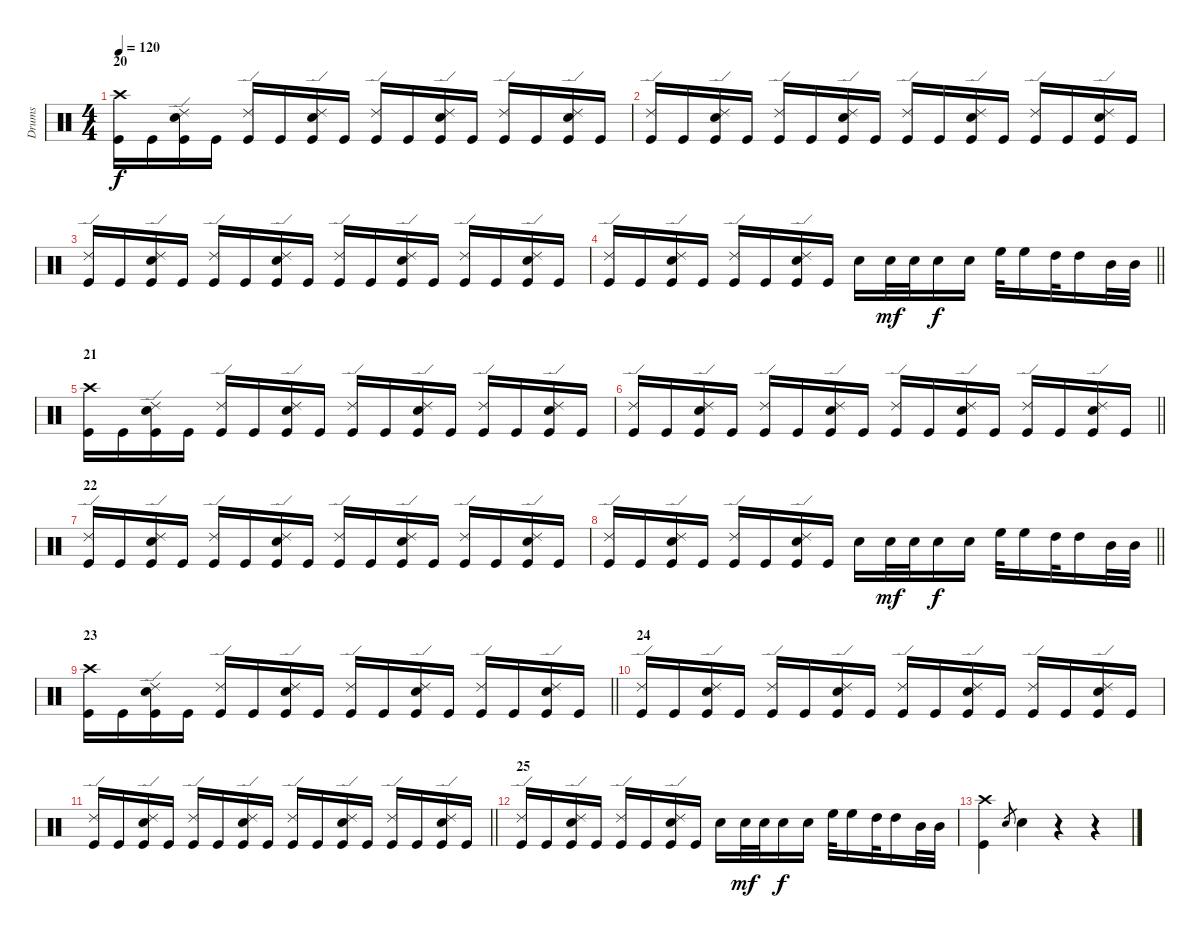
\track ("Drums" "Drums") {instrument percussion}
\staff {score}
\articulation defaults
\ts (4 4)
\section ("" "20")
\tempo 120
\clef neutral
\ks c
("Crash high (hit)" "Kick (hit)").16{dy f} "Kick (hit)".16 ("Ride (edge) 2" "Electric Snare (hit)" "Kick (hit)").16 "Kick (hit)".16 ("Ride (edge) 2" "Kick (hit)").16 "Kick (hit)".16 ("Ride (edge) 2" "Electric Snare (hit)" "Kick (hit)").16 "Kick (hit)".16 ("Ride (edge) 2" "Kick (hit)").16 "Kick (hit)".16 ("Ride (edge) 2" "Electric Snare (hit)" "Kick (hit)").16 "Kick (hit)".16 ("Ride (edge) 2" "Kick (hit)").16 "Kick (hit)".16 ("Ride (edge) 2" "Electric Snare (hit)" "Kick (hit)").16 "Kick (hit)".16 |
("Ride (edge) 2" "Kick (hit)").16 "Kick (hit)".16 ("Ride (edge) 2" "Electric Snare (hit)" "Kick (hit)").16 "Kick (hit)".16 ("Ride (edge) 2" "Kick (hit)").16 "Kick (hit)".16 ("Ride (edge) 2" "Electric Snare (hit)" "Kick (hit)").16 "Kick (hit)".16 ("Ride (edge) 2" "Kick (hit)").16 "Kick (hit)".16 ("Ride (edge) 2" "Electric Snare (hit)" "Kick (hit)").16 "Kick (hit)".16 ("Ride (edge) 2" "Kick (hit)").16 "Kick (hit)".16 ("Ride (edge) 2" "Electric Snare (hit)" "Kick (hit)").16 "Kick (hit)".16 |
("Ride (edge) 2" "Kick (hit)").16 "Kick (hit)".16 ("Ride (edge) 2" "Electric Snare (hit)" "Kick (hit)").16 "Kick (hit)".16 ("Ride (edge) 2" "Kick (hit)").16 "Kick (hit)".16 ("Ride (edge) 2" "Electric Snare (hit)" "Kick (hit)").16 "Kick (hit)".16 ("Ride (edge) 2" "Kick (hit)").16 "Kick (hit)".16 ("Ride (edge) 2" "Electric Snare (hit)" "Kick (hit)").16 "Kick (hit)".16 ("Ride (edge) 2" "Kick (hit)").16 "Kick (hit)".16 ("Ride (edge) 2" "Electric Snare (hit)" "Kick (hit)").16 "Kick (hit)".16 |
\barLineRight lightlight
("Ride (edge) 2" "Kick (hit)").16 "Kick (hit)".16 ("Ride (edge) 2" "Electric Snare (hit)" "Kick (hit)").16 "Kick (hit)".16 ("Ride (edge) 2" "Kick (hit)").16 "Kick (hit)".16 ("Ride (edge) 2" "Electric Snare (hit)" "Kick (hit)").16 "Kick (hit)".16 "Electric Snare (hit)".16 "Electric Snare (hit)".32{dy mf} "Electric Snare (hit)".32 "Electric Snare (hit)".16{dy f} "Electric Snare (hit)".16 "High Floor Tom (hit)".32 "High Floor Tom (hit)".16 "High Tom (hit)".32 "High Tom (hit)".16 "Mid Tom (hit)".32 "Mid Tom (hit)".32 |
\section ("" "21")
("Crash high (hit)" "Kick (hit)").16 "Kick (hit)".16 ("Ride (edge) 2" "Electric Snare (hit)" "Kick (hit)").16 "Kick (hit)".16 ("Ride (edge) 2" "Kick (hit)").16 "Kick (hit)".16 ("Ride (edge) 2" "Electric Snare (hit)" "Kick (hit)").16 "Kick (hit)".16 ("Ride (edge) 2" "Kick (hit)").16 "Kick (hit)".16 ("Ride (edge) 2" "Electric Snare (hit)" "Kick (hit)").16 "Kick (hit)".16 ("Ride (edge) 2" "Kick (hit)").16 "Kick (hit)".16 ("Ride (edge) 2" "Electric Snare (hit)" "Kick (hit)").16 "Kick (hit)".16 |
\barLineRight lightlight
("Ride (edge) 2" "Kick (hit)").16 "Kick (hit)".16 ("Ride (edge) 2" "Electric Snare (hit)" "Kick (hit)").16 "Kick (hit)".16 ("Ride (edge) 2" "Kick (hit)").16 "Kick (hit)".16 ("Ride (edge) 2" "Electric Snare (hit)" "Kick (hit)").16 "Kick (hit)".16 ("Ride (edge) 2" "Kick (hit)").16 "Kick (hit)".16 ("Ride (edge) 2" "Electric Snare (hit)" "Kick (hit)").16 "Kick (hit)".16 ("Ride (edge) 2" "Kick (hit)").16 "Kick (hit)".16 ("Ride (edge) 2" "Electric Snare (hit)" "Kick (hit)").16 "Kick (hit)".16 |
\section ("" "22")
("Ride (edge) 2" "Kick (hit)").16 "Kick (hit)".16 ("Ride (edge) 2" "Electric Snare (hit)" "Kick (hit)").16 "Kick (hit)".16 ("Ride (edge) 2" "Kick (hit)").16 "Kick (hit)".16 ("Ride (edge) 2" "Electric Snare (hit)" "Kick (hit)").16 "Kick (hit)".16 ("Ride (edge) 2" "Kick (hit)").16 "Kick (hit)".16 ("Ride (edge) 2" "Electric Snare (hit)" "Kick (hit)").16 "Kick (hit)".16 ("Ride (edge) 2" "Kick (hit)").16 "Kick (hit)".16 ("Ride (edge) 2" "Electric Snare (hit)" "Kick (hit)").16 "Kick (hit)".16 |
\barLineRight lightlight
("Ride (edge) 2" "Kick (hit)").16 "Kick (hit)".16 ("Ride (edge) 2" "Electric Snare (hit)" "Kick (hit)").16 "Kick (hit)".16 ("Ride (edge) 2" "Kick (hit)").16 "Kick (hit)".16 ("Ride (edge) 2" "Electric Snare (hit)" "Kick (hit)").16 "Kick (hit)".16 "Electric Snare (hit)".16 "Electric Snare (hit)".32{dy mf} "Electric Snare (hit)".32 "Electric Snare (hit)".16{dy f} "Electric Snare (hit)".16 "High Floor Tom (hit)".32 "High Floor Tom (hit)".16 "High Tom (hit)".32 "High Tom (hit)".16 "Mid Tom (hit)".32 "Mid Tom (hit)".32 |
\section ("" "23")
\barLineRight lightlight
("Crash high (hit)" "Kick (hit)").16 "Kick (hit)".16 ("Ride (edge) 2" "Electric Snare (hit)" "Kick (hit)").16 "Kick (hit)".16 ("Ride (edge) 2" "Kick (hit)").16 "Kick (hit)".16 ("Ride (edge) 2" "Electric Snare (hit)" "Kick (hit)").16 "Kick (hit)".16 ("Ride (edge) 2" "Kick (hit)").16 "Kick (hit)".16 ("Ride (edge) 2" "Electric Snare (hit)" "Kick (hit)").16 "Kick (hit)".16 ("Ride (edge) 2" "Kick (hit)").16 "Kick (hit)".16 ("Ride (edge) 2" "Electric Snare (hit)" "Kick (hit)").16 "Kick (hit)".16 |
\section ("" "24")
("Ride (edge) 2" "Kick (hit)").16 "Kick (hit)".16 ("Ride (edge) 2" "Electric Snare (hit)" "Kick (hit)").16 "Kick (hit)".16 ("Ride (edge) 2" "Kick (hit)").16 "Kick (hit)".16 ("Ride (edge) 2" "Electric Snare (hit)" "Kick (hit)").16 "Kick (hit)".16 ("Ride (edge) 2" "Kick (hit)").16 "Kick (hit)".16 ("Ride (edge) 2" "Electric Snare (hit)" "Kick (hit)").16 "Kick (hit)".16 ("Ride (edge) 2" "Kick (hit)").16 "Kick (hit)".16 ("Ride (edge) 2" "Electric Snare (hit)" "Kick (hit)").16 "Kick (hit)".16 |
\barLineRight lightlight
("Ride (edge) 2" "Kick (hit)").16 "Kick (hit)".16 ("Ride (edge) 2" "Electric Snare (hit)" "Kick (hit)").16 "Kick (hit)".16 ("Ride (edge) 2" "Kick (hit)").16 "Kick (hit)".16 ("Ride (edge) 2" "Electric Snare (hit)" "Kick (hit)").16 "Kick (hit)".16 ("Ride (edge) 2" "Kick (hit)").16 "Kick (hit)".16 ("Ride (edge) 2" "Electric Snare (hit)" "Kick (hit)").16 "Kick (hit)".16 ("Ride (edge) 2" "Kick (hit)").16 "Kick (hit)".16 ("Ride (edge) 2" "Electric Snare (hit)" "Kick (hit)").16 "Kick (hit)".16 |
\section ("" "25")
("Ride (edge) 2" "Kick (hit)").16 "Kick (hit)".16 ("Ride (edge) 2" "Electric Snare (hit)" "Kick (hit)").16 "Kick (hit)".16 ("Ride (edge) 2" "Kick (hit)").16 "Kick (hit)".16 ("Ride (edge) 2" "Electric Snare (hit)" "Kick (hit)").16 "Kick (hit)".16 "Electric Snare (hit)".16 "Electric Snare (hit)".32{dy mf} "Electric Snare (hit)".32 "Electric Snare (hit)".16{dy f} "Electric Snare (hit)".16 "High Floor Tom (hit)".32 "High Floor Tom (hit)".16 "High Tom (hit)".32 "High Tom (hit)".16 "Mid Tom (hit)".32 "Mid Tom (hit)".32 |
("Crash high (hit)" "Kick (hit)").4 "Electric Snare (hit)".8{gr} "Electric Snare (hit)".4 r.4 r.4
